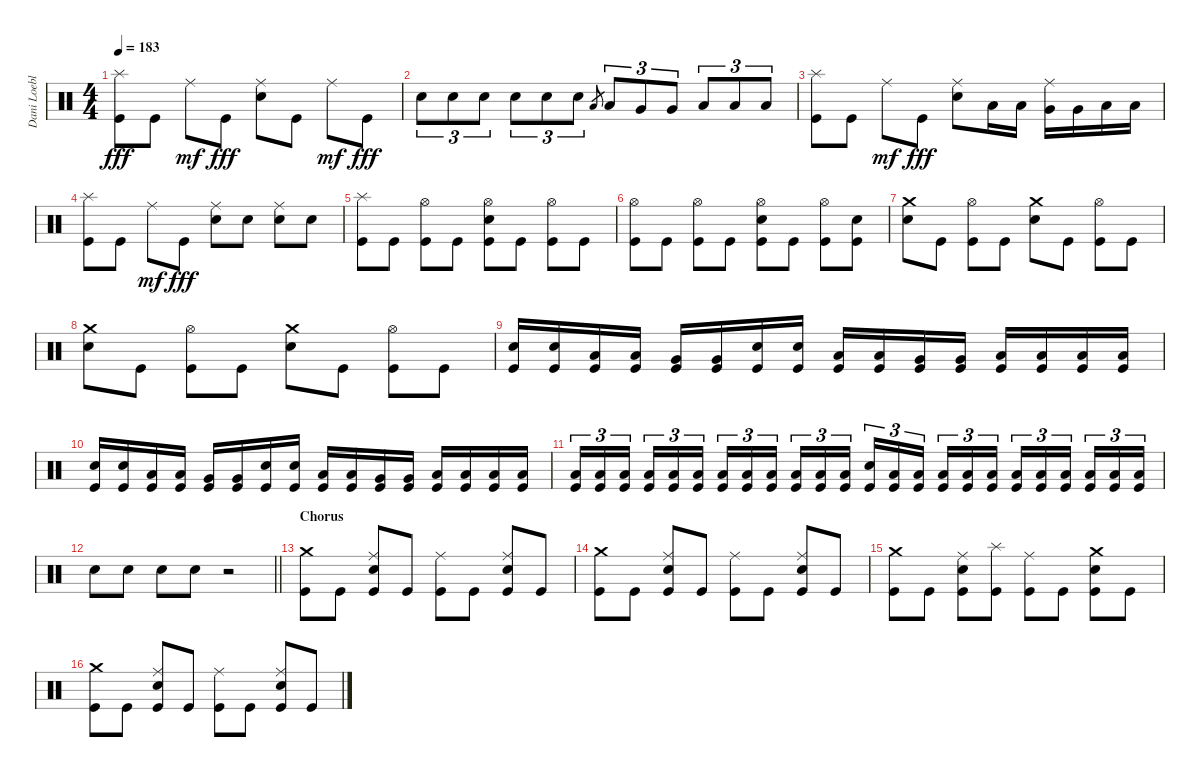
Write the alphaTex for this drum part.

\track ("Dani Loeble" "Dani Loebl") {instrument percussion}
\staff {score}
\articulation defaults
\ts (4 4)
\tempo 183
\clef neutral
\ks c
("Splash (hit)" "Kick (hit)").8{dy fff} "Kick (hit)".8 "Ride (middle)".8{dy mf} "Kick (hit)".8{dy fff} ("Ride (middle)" "Electric Snare (hit)").8 "Kick (hit)".8 "Ride (middle)".8{dy mf} "Kick (hit)".8{dy fff} |
"Electric Snare (hit)".8{tu (3 2)} "Electric Snare (hit)".8{tu (3 2)} "Electric Snare (hit)".8{tu (3 2)} "Electric Snare (hit)".8{tu (3 2)} "Electric Snare (hit)".8{tu (3 2)} "Electric Snare (hit)".8{tu (3 2)} "Low Tom (hit)".8{gr} "Low Tom (hit)".8{tu (3 2)} "Very Low Tom (hit)".8{tu (3 2)} "Very Low Tom (hit)".8{tu (3 2)} "Low Floor Tom (hit)".8{tu (3 2)} "Low Floor Tom (hit)".8{tu (3 2)} "Low Floor Tom (hit)".8{tu (3 2)} |
("Splash (hit)" "Kick (hit)").8 "Kick (hit)".8 "Ride (middle)".8{dy mf} "Kick (hit)".8{dy fff} ("Ride (middle)" "Electric Snare (hit)").8 "Low Tom (hit)".16 "Low Tom (hit)".16 ("Ride (middle)" "Very Low Tom (hit)").16 "Very Low Tom (hit)".16 "Low Floor Tom (hit)".16 "Low Floor Tom (hit)".16 |
("Splash (hit)" "Kick (hit)").8 "Kick (hit)".8 "Ride (middle)".8{dy mf} "Kick (hit)".8{dy fff} ("Ride (middle)" "Electric Snare (hit)").8 "Electric Snare (hit)".8 ("Ride (middle)" "Electric Snare (hit)").8 "Electric Snare (hit)".8 |
("Splash (hit)" "Kick (hit)").8 "Kick (hit)".8 ("Hi-Hat (open)" "Kick (hit)").8 "Kick (hit)".8 ("Hi-Hat (open)" "Electric Snare (hit)" "Kick (hit)").8 "Kick (hit)".8 ("Hi-Hat (open)" "Kick (hit)").8 "Kick (hit)".8 |
("Hi-Hat (open)" "Kick (hit)").8 "Kick (hit)".8 ("Hi-Hat (open)" "Kick (hit)").8 "Kick (hit)".8 ("Hi-Hat (open)" "Electric Snare (hit)" "Kick (hit)").8 "Kick (hit)".8 ("Hi-Hat (open)" "Kick (hit)").8 ("Electric Snare (hit)" "Kick (hit)").8 |
("Crash medium (hit)" "Electric Snare (hit)").8 "Kick (hit)".8 ("Hi-Hat (open)" "Kick (hit)").8 "Kick (hit)".8 ("Crash medium (hit)" "Electric Snare (hit)").8 "Kick (hit)".8 ("Hi-Hat (open)" "Kick (hit)").8 "Kick (hit)".8 |
("Crash medium (hit)" "Electric Snare (hit)").8 "Kick (hit)".8 ("Hi-Hat (open)" "Kick (hit)").8 "Kick (hit)".8 ("Crash medium (hit)" "Electric Snare (hit)").8 "Kick (hit)".8 ("Hi-Hat (open)" "Kick (hit)").8 "Kick (hit)".8 |
("Electric Snare (hit)" "Kick (hit)").16 ("Electric Snare (hit)" "Kick (hit)").16 ("Low Tom (hit)" "Kick (hit)").16 ("Low Tom (hit)" "Kick (hit)").16 ("Very Low Tom (hit)" "Kick (hit)").16 ("Very Low Tom (hit)" "Kick (hit)").16 ("Electric Snare (hit)" "Kick (hit)").16 ("Electric Snare (hit)" "Kick (hit)").16 ("Low Tom (hit)" "Kick (hit)").16 ("Low Tom (hit)" "Kick (hit)").16 ("Very Low Tom (hit)" "Kick (hit)").16 ("Very Low Tom (hit)" "Kick (hit)").16 ("Low Floor Tom (hit)" "Kick (hit)").16 ("Low Floor Tom (hit)" "Kick (hit)").16 ("Low Floor Tom (hit)" "Kick (hit)").16 ("Low Floor Tom (hit)" "Kick (hit)").16 |
("Electric Snare (hit)" "Kick (hit)").16 ("Electric Snare (hit)" "Kick (hit)").16 ("Low Tom (hit)" "Kick (hit)").16 ("Low Tom (hit)" "Kick (hit)").16 ("Very Low Tom (hit)" "Kick (hit)").16 ("Very Low Tom (hit)" "Kick (hit)").16 ("Electric Snare (hit)" "Kick (hit)").16 ("Electric Snare (hit)" "Kick (hit)").16 ("Low Tom (hit)" "Kick (hit)").16 ("Low Tom (hit)" "Kick (hit)").16 ("Very Low Tom (hit)" "Kick (hit)").16 ("Very Low Tom (hit)" "Kick (hit)").16 ("Low Floor Tom (hit)" "Kick (hit)").16 ("Low Floor Tom (hit)" "Kick (hit)").16 ("Low Floor Tom (hit)" "Kick (hit)").16 ("Low Floor Tom (hit)" "Kick (hit)").16 |
("Low Floor Tom (hit)" "Kick (hit)").16{tu (3 2)} ("Low Floor Tom (hit)" "Kick (hit)").16{tu (3 2)} ("Low Floor Tom (hit)" "Kick (hit)").16{tu (3 2) beam splitsecondary} ("Low Floor Tom (hit)" "Kick (hit)").16{tu (3 2)} ("Low Floor Tom (hit)" "Kick (hit)").16{tu (3 2)} ("Low Floor Tom (hit)" "Kick (hit)").16{tu (3 2)} ("Low Floor Tom (hit)" "Kick (hit)").16{tu (3 2)} ("Low Floor Tom (hit)" "Kick (hit)").16{tu (3 2)} ("Low Floor Tom (hit)" "Kick (hit)").16{tu (3 2) beam splitsecondary} ("Low Floor Tom (hit)" "Kick (hit)").16{tu (3 2)} ("Low Floor Tom (hit)" "Kick (hit)").16{tu (3 2)} ("Low Floor Tom (hit)" "Kick (hit)").16{tu (3 2)} ("Electric Snare (hit)" "Kick (hit)").16{tu (3 2)} ("Low Floor Tom (hit)" "Kick (hit)").16{tu (3 2)} ("Low Floor Tom (hit)" "Kick (hit)").16{tu (3 2) beam splitsecondary} ("Low Floor Tom (hit)" "Kick (hit)").16{tu (3 2)} ("Low Floor Tom (hit)" "Kick (hit)").16{tu (3 2)} ("Low Floor Tom (hit)" "Kick (hit)").16{tu (3 2)} ("Low Floor Tom (hit)" "Kick (hit)").16{tu (3 2)} ("Low Floor Tom (hit)" "Kick (hit)").16{tu (3 2)} ("Low Floor Tom (hit)" "Kick (hit)").16{tu (3 2) beam splitsecondary} ("Low Floor Tom (hit)" "Kick (hit)").16{tu (3 2)} ("Low Floor Tom (hit)" "Kick (hit)").16{tu (3 2)} ("Low Floor Tom (hit)" "Kick (hit)").16{tu (3 2)} |
\barLineRight lightlight "Electric Snare (hit)".8 "Electric Snare (hit)".8 "Electric Snare (hit)".8 "Electric Snare (hit)".8
r.2 |
\section ("" "Chorus")
("Crash medium (hit)" "Kick (hit)").8 "Kick (hit)".8 ("Ride (middle)" "Electric Snare (hit)" "Kick (hit)").8 "Kick (hit)".8 ("Ride (middle)" "Kick (hit)").8 "Kick (hit)".8 ("Ride (middle)" "Electric Snare (hit)" "Kick (hit)").8 "Kick (hit)".8 |
("Crash medium (hit)" "Kick (hit)").8 "Kick (hit)".8 ("Ride (middle)" "Electric Snare (hit)" "Kick (hit)").8 "Kick (hit)".8 ("Ride (middle)" "Kick (hit)").8 "Kick (hit)".8 ("Ride (middle)" "Electric Snare (hit)" "Kick (hit)").8 "Kick (hit)".8 |
("Crash medium (hit)" "Kick (hit)").8 "Kick (hit)".8 ("Ride (middle)" "Electric Snare (hit)" "Kick (hit)").8 ("Splash (hit)" "Kick (hit)").8 ("Ride (middle)" "Kick (hit)").8 "Kick (hit)".8 ("Crash medium (hit)" "Electric Snare (hit)" "Kick (hit)").8 "Kick (hit)".8 |
("Crash medium (hit)" "Kick (hit)").8 "Kick (hit)".8 ("Ride (middle)" "Electric Snare (hit)" "Kick (hit)").8 "Kick (hit)".8 ("Ride (middle)" "Kick (hit)").8 "Kick (hit)".8 ("Ride (middle)" "Electric Snare (hit)" "Kick (hit)").8 "Kick (hit)".8
